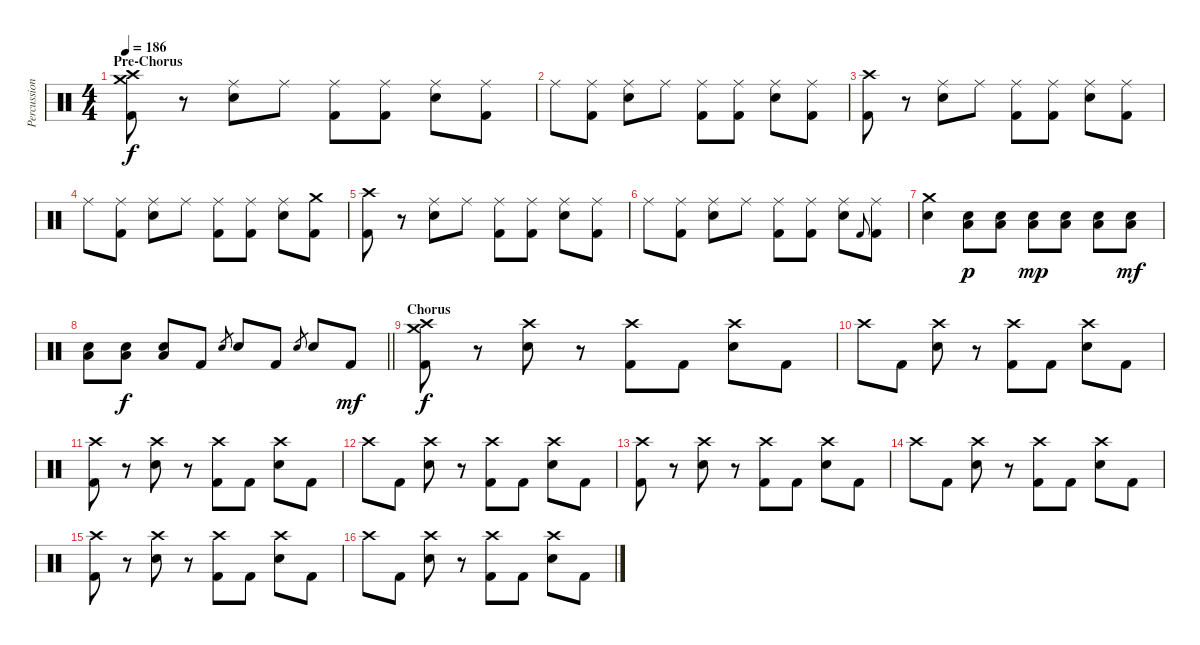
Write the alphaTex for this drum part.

\track ("Percussion" "Percussion") {instrument percussion}
\staff {score}
\articulation defaults
\ts (4 4)
\section ("" "Pre-Chorus")
\tempo 186
\clef neutral
\ks c
("Crash high (hit)" "Crash medium (hit)" "Kick (hit) 2").8{dy f} r.8 ("Ride (middle)" "Electric Snare (hit)").8 "Ride (middle)".8 ("Ride (middle)" "Kick (hit) 2").8 ("Ride (middle)" "Kick (hit) 2").8 ("Ride (middle)" "Electric Snare (hit)").8 ("Ride (middle)" "Kick (hit) 2").8 |
"Ride (middle)".8 ("Ride (middle)" "Kick (hit) 2").8 ("Ride (middle)" "Electric Snare (hit)").8 "Ride (middle)".8 ("Ride (middle)" "Kick (hit) 2").8 ("Ride (middle)" "Kick (hit) 2").8 ("Ride (middle)" "Electric Snare (hit)").8 ("Ride (middle)" "Kick (hit) 2").8 |
("Crash high (hit)" "Kick (hit) 2").8 r.8 ("Ride (middle)" "Electric Snare (hit)").8 "Ride (middle)".8 ("Ride (middle)" "Kick (hit) 2").8 ("Ride (middle)" "Kick (hit) 2").8 ("Ride (middle)" "Electric Snare (hit)").8 ("Ride (middle)" "Kick (hit) 2").8 |
"Ride (middle)".8 ("Ride (middle)" "Kick (hit) 2").8 ("Ride (middle)" "Electric Snare (hit)").8 "Ride (middle)".8 ("Ride (middle)" "Kick (hit) 2").8 ("Ride (middle)" "Kick (hit) 2").8 ("Ride (middle)" "Electric Snare (hit)").8 ("Crash medium (hit)" "Kick (hit) 2").8 |
("Crash high (hit)" "Kick (hit) 2").8 r.8 ("Ride (middle)" "Electric Snare (hit)").8 "Ride (middle)".8 ("Ride (middle)" "Kick (hit) 2").8 ("Ride (middle)" "Kick (hit) 2").8 ("Ride (middle)" "Electric Snare (hit)").8 ("Ride (middle)" "Kick (hit) 2").8 |
"Ride (middle)".8 ("Ride (middle)" "Kick (hit) 2").8 ("Ride (middle)" "Electric Snare (hit)").8 "Ride (middle)".8 ("Ride (middle)" "Kick (hit) 2").8 ("Ride (middle)" "Kick (hit) 2").8 ("Ride (middle)" "Electric Snare (hit)").8 "Kick (hit) 2".8{gr onbeat} ("Ride (middle)" "Kick (hit) 2").8 |
("Crash medium (hit)" "Electric Snare (hit)").4 ("Electric Snare (hit)" "Low Floor Tom (hit)").8{dy p} ("Electric Snare (hit)" "Low Floor Tom (hit)").8 ("Electric Snare (hit)" "Low Floor Tom (hit)").8{dy mp} ("Electric Snare (hit)" "Low Floor Tom (hit)").8 ("Electric Snare (hit)" "Low Floor Tom (hit)").8 ("Electric Snare (hit)" "Low Floor Tom (hit)").8{dy mf} |
\barLineRight lightlight
("Electric Snare (hit)" "Low Floor Tom (hit)").8 ("Electric Snare (hit)" "Low Floor Tom (hit)").8{dy f} ("Electric Snare (hit)" "Low Floor Tom (hit)").8 "Kick (hit) 2".8 "Electric Snare (hit)".8{gr} "Electric Snare (hit)".8 "Kick (hit) 2".8 "Electric Snare (hit)".8{gr} "Electric Snare (hit)".8 "Kick (hit) 2".8{dy mf} |
\section ("" "Chorus")
("Crash high (hit)" "Crash medium (hit)" "Kick (hit) 2").8{dy f} r.8 ("Crash high (hit)" "Electric Snare (hit)").8 r.8 ("Crash high (hit)" "Kick (hit) 2").8 "Kick (hit) 2".8 ("Crash high (hit)" "Electric Snare (hit)").8 "Kick (hit) 2".8 |
"Crash high (hit)".8 "Kick (hit) 2".8 ("Crash high (hit)" "Electric Snare (hit)").8 r.8 ("Crash high (hit)" "Kick (hit) 2").8 "Kick (hit) 2".8 ("Crash high (hit)" "Electric Snare (hit)").8 "Kick (hit) 2".8 |
("Crash high (hit)" "Kick (hit) 2").8 r.8 ("Crash high (hit)" "Electric Snare (hit)").8 r.8 ("Crash high (hit)" "Kick (hit) 2").8 "Kick (hit) 2".8 ("Crash high (hit)" "Electric Snare (hit)").8 "Kick (hit) 2".8 |
"Crash high (hit)".8 "Kick (hit) 2".8 ("Crash high (hit)" "Electric Snare (hit)").8 r.8 ("Crash high (hit)" "Kick (hit) 2").8 "Kick (hit) 2".8 ("Crash high (hit)" "Electric Snare (hit)").8 "Kick (hit) 2".8 |
("Crash high (hit)" "Kick (hit) 2").8 r.8 ("Crash high (hit)" "Electric Snare (hit)").8 r.8 ("Crash high (hit)" "Kick (hit) 2").8 "Kick (hit) 2".8 ("Crash high (hit)" "Electric Snare (hit)").8 "Kick (hit) 2".8 |
"Crash high (hit)".8 "Kick (hit) 2".8 ("Crash high (hit)" "Electric Snare (hit)").8 r.8 ("Crash high (hit)" "Kick (hit) 2").8 "Kick (hit) 2".8 ("Crash high (hit)" "Electric Snare (hit)").8 "Kick (hit) 2".8 |
("Crash high (hit)" "Kick (hit) 2").8 r.8 ("Crash high (hit)" "Electric Snare (hit)").8 r.8 ("Crash high (hit)" "Kick (hit) 2").8 "Kick (hit) 2".8 ("Crash high (hit)" "Electric Snare (hit)").8 "Kick (hit) 2".8 |
"Crash high (hit)".8 "Kick (hit) 2".8 ("Crash high (hit)" "Electric Snare (hit)").8 r.8 ("Crash high (hit)" "Kick (hit) 2").8 "Kick (hit) 2".8 ("Crash high (hit)" "Electric Snare (hit)").8 "Kick (hit) 2".8
